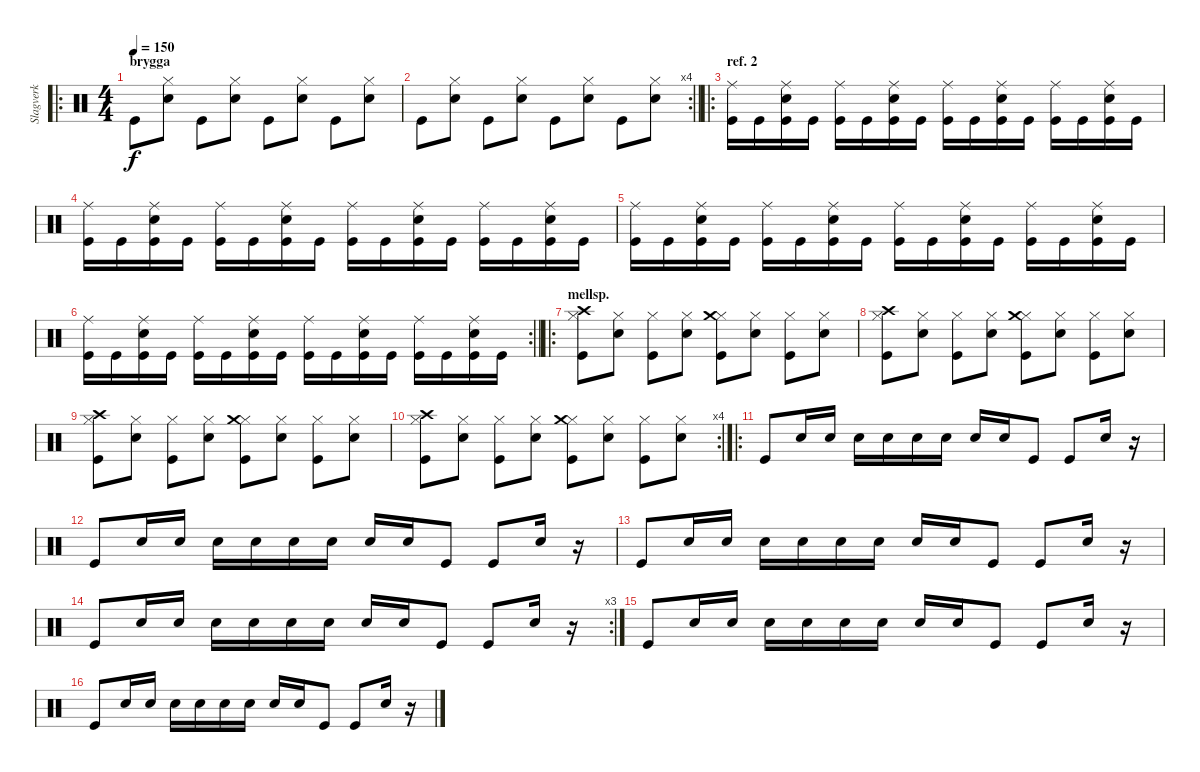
\track ("Slagverk" "Slagverk") {instrument percussion}
\staff {score}
\articulation defaults
\ro
\ts (4 4)
\section ("" "brygga")
\tempo 150
\clef neutral
\ks c "Kick (hit)".8{dy f}
("Snare (hit) 2" "Hi-Hat (closed)").8 "Kick (hit)".8 ("Snare (hit) 2" "Hi-Hat (closed)").8 "Kick (hit)".8 ("Snare (hit) 2" "Hi-Hat (closed)").8 "Kick (hit)".8 ("Snare (hit) 2" "Hi-Hat (closed)").8 |
\rc 4
\barLineRight lightlight "Kick (hit)".8
("Snare (hit) 2" "Hi-Hat (closed)").8 "Kick (hit)".8 ("Snare (hit) 2" "Hi-Hat (closed)").8 "Kick (hit)".8 ("Snare (hit) 2" "Hi-Hat (closed)").8 "Kick (hit)".8 ("Snare (hit) 2" "Hi-Hat (closed)").8 |
\ro
\section ("" "ref. 2")
("Kick (hit)" "Ride (middle)").16 "Kick (hit)".16 ("Kick (hit)" "Snare (hit) 2" "Ride (middle)").16 "Kick (hit)".16 ("Kick (hit)" "Ride (middle)").16 "Kick (hit)".16 ("Kick (hit)" "Snare (hit) 2" "Ride (middle)").16 "Kick (hit)".16 ("Kick (hit)" "Ride (middle)").16 "Kick (hit)".16 ("Kick (hit)" "Snare (hit) 2" "Ride (middle)").16 "Kick (hit)".16 ("Kick (hit)" "Ride (middle)").16 "Kick (hit)".16 ("Kick (hit)" "Snare (hit) 2" "Ride (middle)").16 "Kick (hit)".16 |
("Kick (hit)" "Ride (middle)").16 "Kick (hit)".16 ("Kick (hit)" "Snare (hit) 2" "Ride (middle)").16 "Kick (hit)".16 ("Kick (hit)" "Ride (middle)").16 "Kick (hit)".16 ("Kick (hit)" "Snare (hit) 2" "Ride (middle)").16 "Kick (hit)".16 ("Kick (hit)" "Ride (middle)").16 "Kick (hit)".16 ("Kick (hit)" "Snare (hit) 2" "Ride (middle)").16 "Kick (hit)".16 ("Kick (hit)" "Ride (middle)").16 "Kick (hit)".16 ("Kick (hit)" "Snare (hit) 2" "Ride (middle)").16 "Kick (hit)".16 |
("Kick (hit)" "Ride (middle)").16 "Kick (hit)".16 ("Kick (hit)" "Snare (hit) 2" "Ride (middle)").16 "Kick (hit)".16 ("Kick (hit)" "Ride (middle)").16 "Kick (hit)".16 ("Kick (hit)" "Snare (hit) 2" "Ride (middle)").16 "Kick (hit)".16 ("Kick (hit)" "Ride (middle)").16 "Kick (hit)".16 ("Kick (hit)" "Snare (hit) 2" "Ride (middle)").16 "Kick (hit)".16 ("Kick (hit)" "Ride (middle)").16 "Kick (hit)".16 ("Kick (hit)" "Snare (hit) 2" "Ride (middle)").16 "Kick (hit)".16 |
\rc 2
\barLineRight lightlight
("Kick (hit)" "Ride (middle)").16 "Kick (hit)".16 ("Kick (hit)" "Snare (hit) 2" "Ride (middle)").16 "Kick (hit)".16 ("Kick (hit)" "Ride (middle)").16 "Kick (hit)".16 ("Kick (hit)" "Snare (hit) 2" "Ride (middle)").16 "Kick (hit)".16 ("Kick (hit)" "Ride (middle)").16 "Kick (hit)".16 ("Kick (hit)" "Snare (hit) 2" "Ride (middle)").16 "Kick (hit)".16 ("Kick (hit)" "Ride (middle)").16 "Kick (hit)".16 ("Kick (hit)" "Snare (hit) 2" "Ride (middle)").16 "Kick (hit)".16 |
\ro
\section ("" "mellsp.")
("Hi-Hat (closed)" "Kick (hit)" "Crash high (hit)").8 ("Hi-Hat (closed)" "Snare (hit) 2").8 ("Hi-Hat (closed)" "Kick (hit)").8 ("Hi-Hat (closed)" "Snare (hit) 2").8 ("Hi-Hat (closed)" "Kick (hit)" "Crash medium (hit)").8 ("Hi-Hat (closed)" "Snare (hit) 2").8 ("Hi-Hat (closed)" "Kick (hit)").8 ("Hi-Hat (closed)" "Snare (hit) 2").8 |
("Hi-Hat (closed)" "Kick (hit)" "Crash high (hit)").8 ("Hi-Hat (closed)" "Snare (hit) 2").8 ("Hi-Hat (closed)" "Kick (hit)").8 ("Hi-Hat (closed)" "Snare (hit) 2").8 ("Hi-Hat (closed)" "Kick (hit)" "Crash medium (hit)").8 ("Hi-Hat (closed)" "Snare (hit) 2").8 ("Hi-Hat (closed)" "Kick (hit)").8 ("Hi-Hat (closed)" "Snare (hit) 2").8 |
("Hi-Hat (closed)" "Kick (hit)" "Crash high (hit)").8 ("Hi-Hat (closed)" "Snare (hit) 2").8 ("Hi-Hat (closed)" "Kick (hit)").8 ("Hi-Hat (closed)" "Snare (hit) 2").8 ("Hi-Hat (closed)" "Kick (hit)" "Crash medium (hit)").8 ("Hi-Hat (closed)" "Snare (hit) 2").8 ("Hi-Hat (closed)" "Kick (hit)").8 ("Hi-Hat (closed)" "Snare (hit) 2").8 |
\rc 4
("Hi-Hat (closed)" "Kick (hit)" "Crash high (hit)").8 ("Hi-Hat (closed)" "Snare (hit) 2").8 ("Hi-Hat (closed)" "Kick (hit)").8 ("Hi-Hat (closed)" "Snare (hit) 2").8 ("Hi-Hat (closed)" "Kick (hit)" "Crash medium (hit)").8 ("Hi-Hat (closed)" "Snare (hit) 2").8 ("Hi-Hat (closed)" "Kick (hit)").8 ("Hi-Hat (closed)" "Snare (hit) 2").8 |
\ro "Kick (hit)".8 "Snare (hit) 2".16 "Snare (hit) 2".16 "Snare (hit) 2".16 "Snare (hit) 2".16 "Snare (hit) 2".16 "Snare (hit) 2".16 "Snare (hit) 2".16 "Snare (hit) 2".16 "Kick (hit)".8 "Kick (hit)".8 "Snare (hit) 2".16
r.16 |
"Kick (hit)".8 "Snare (hit) 2".16 "Snare (hit) 2".16 "Snare (hit) 2".16 "Snare (hit) 2".16 "Snare (hit) 2".16 "Snare (hit) 2".16 "Snare (hit) 2".16 "Snare (hit) 2".16 "Kick (hit)".8 "Kick (hit)".8 "Snare (hit) 2".16 r.16 |
"Kick (hit)".8 "Snare (hit) 2".16 "Snare (hit) 2".16 "Snare (hit) 2".16 "Snare (hit) 2".16 "Snare (hit) 2".16 "Snare (hit) 2".16 "Snare (hit) 2".16 "Snare (hit) 2".16 "Kick (hit)".8 "Kick (hit)".8 "Snare (hit) 2".16 r.16 |
\rc 3 "Kick (hit)".8 "Snare (hit) 2".16 "Snare (hit) 2".16 "Snare (hit) 2".16 "Snare (hit) 2".16 "Snare (hit) 2".16 "Snare (hit) 2".16 "Snare (hit) 2".16 "Snare (hit) 2".16 "Kick (hit)".8 "Kick (hit)".8 "Snare (hit) 2".16
r.16 |
"Kick (hit)".8 "Snare (hit) 2".16 "Snare (hit) 2".16 "Snare (hit) 2".16 "Snare (hit) 2".16 "Snare (hit) 2".16 "Snare (hit) 2".16 "Snare (hit) 2".16 "Snare (hit) 2".16 "Kick (hit)".8 "Kick (hit)".8 "Snare (hit) 2".16 r.16 |
"Kick (hit)".8 "Snare (hit) 2".16 "Snare (hit) 2".16 "Snare (hit) 2".16 "Snare (hit) 2".16 "Snare (hit) 2".16 "Snare (hit) 2".16 "Snare (hit) 2".16 "Snare (hit) 2".16 "Kick (hit)".8 "Kick (hit)".8 "Snare (hit) 2".16 r.16
